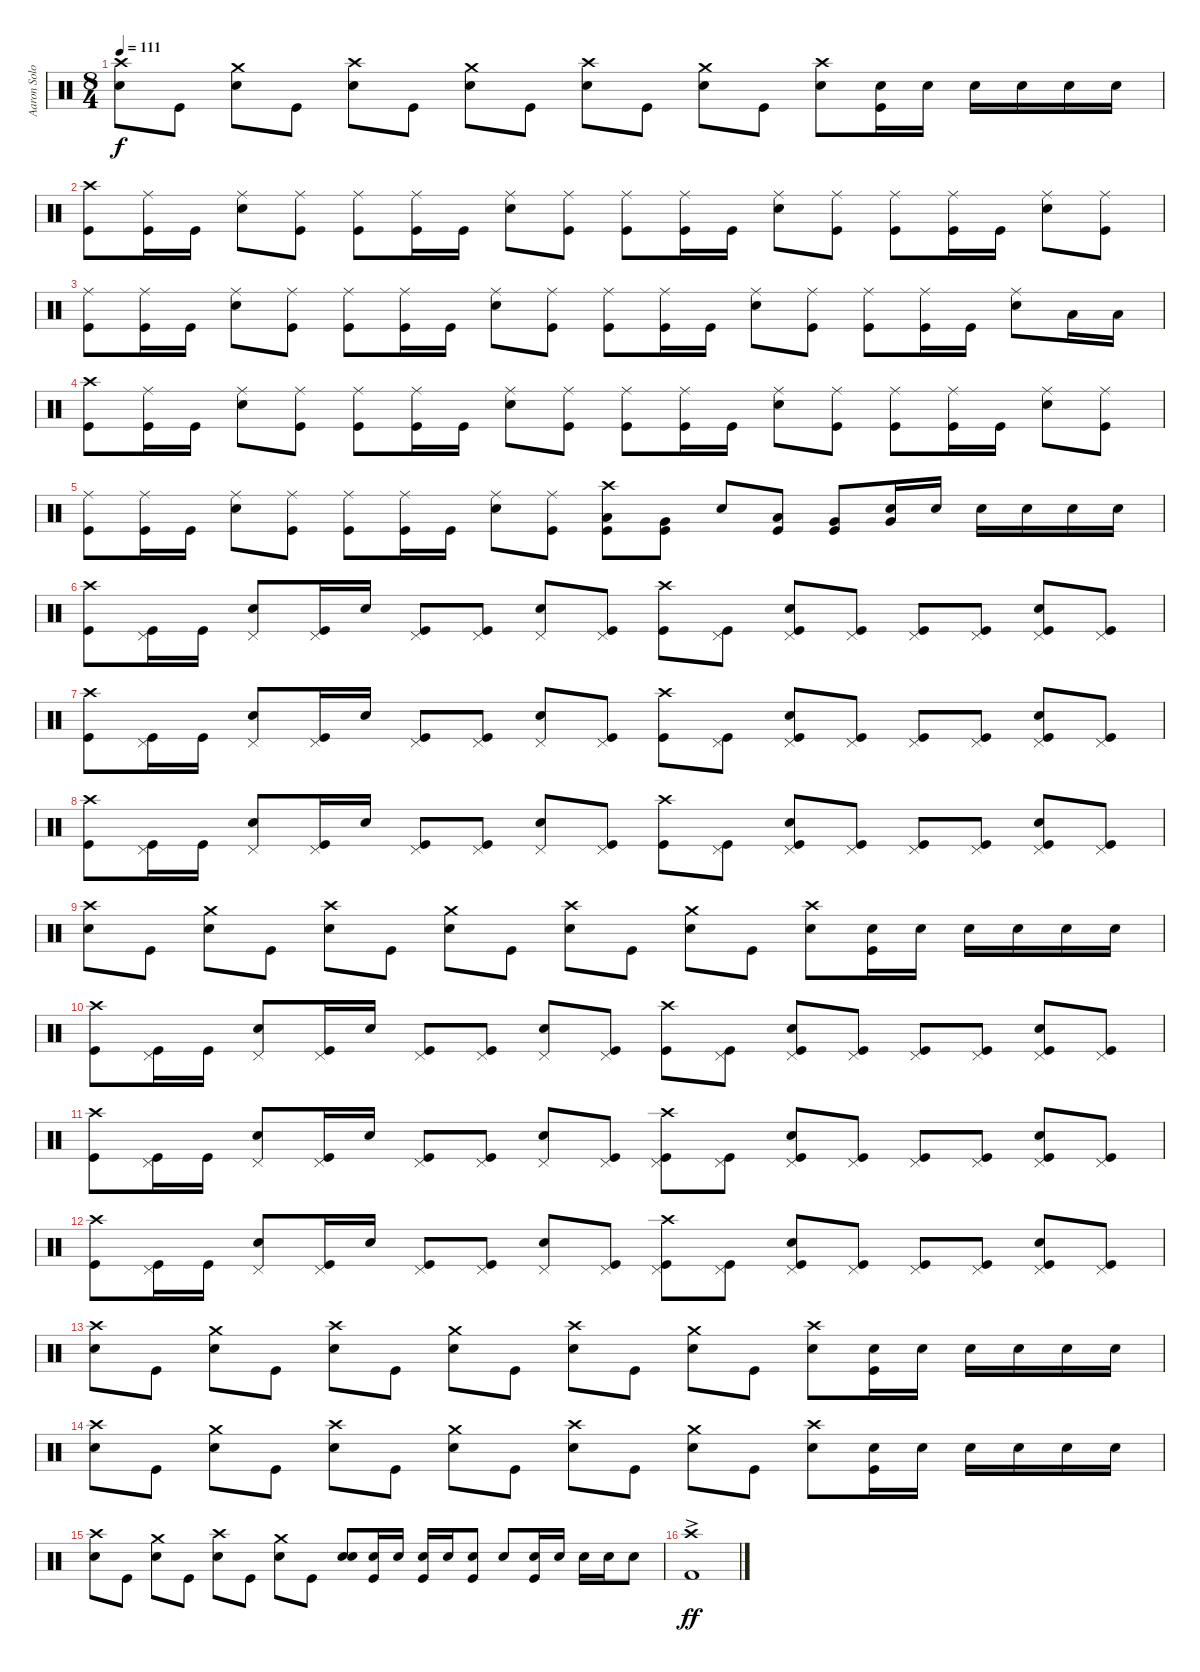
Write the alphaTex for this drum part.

\track ("Aaron Solowoniuk(Drums)" "Aaron Solo") {instrument percussion}
\staff {score}
\articulation defaults
\ts (8 4)
\tempo 111
\clef neutral
\ks c
("Crash high (hit)" "Electric Snare (hit)").8{dy f} "Kick (hit)".8 ("Crash medium (hit)" "Electric Snare (hit)").8 "Kick (hit)".8 ("Crash high (hit)" "Electric Snare (hit)").8 "Kick (hit)".8 ("Crash medium (hit)" "Electric Snare (hit)").8 "Kick (hit)".8 ("Crash high (hit)" "Electric Snare (hit)").8 "Kick (hit)".8 ("Crash medium (hit)" "Electric Snare (hit)").8 "Kick (hit)".8 ("Crash high (hit)" "Electric Snare (hit)").8 ("Electric Snare (hit)" "Kick (hit)").16 "Electric Snare (hit)".16 "Electric Snare (hit)".16 "Electric Snare (hit)".16 "Electric Snare (hit)".16 "Electric Snare (hit)".16 |
("Crash high (hit)" "Kick (hit)").8 ("Ride (middle)" "Kick (hit)").16 "Kick (hit)".16 ("Ride (middle)" "Electric Snare (hit)").8 ("Ride (middle)" "Kick (hit)").8 ("Ride (middle)" "Kick (hit)").8 ("Ride (middle)" "Kick (hit)").16 "Kick (hit)".16 ("Ride (middle)" "Electric Snare (hit)").8 ("Ride (middle)" "Kick (hit)").8 ("Ride (middle)" "Kick (hit)").8 ("Ride (middle)" "Kick (hit)").16 "Kick (hit)".16 ("Ride (middle)" "Electric Snare (hit)").8 ("Ride (middle)" "Kick (hit)").8 ("Ride (middle)" "Kick (hit)").8 ("Ride (middle)" "Kick (hit)").16 "Kick (hit)".16 ("Ride (middle)" "Electric Snare (hit)").8 ("Ride (middle)" "Kick (hit)").8 |
("Ride (middle)" "Kick (hit)").8 ("Ride (middle)" "Kick (hit)").16 "Kick (hit)".16 ("Ride (middle)" "Electric Snare (hit)").8 ("Ride (middle)" "Kick (hit)").8 ("Ride (middle)" "Kick (hit)").8 ("Ride (middle)" "Kick (hit)").16 "Kick (hit)".16 ("Ride (middle)" "Electric Snare (hit)").8 ("Ride (middle)" "Kick (hit)").8 ("Ride (middle)" "Kick (hit)").8 ("Ride (middle)" "Kick (hit)").16 "Kick (hit)".16 ("Ride (middle)" "Electric Snare (hit)").8 ("Ride (middle)" "Kick (hit)").8 ("Ride (middle)" "Kick (hit)").8 ("Ride (middle)" "Kick (hit)").16 "Kick (hit)".16 ("Ride (middle)" "Electric Snare (hit)").8 "Low Floor Tom (hit)".16 "Low Floor Tom (hit)".16 |
("Crash high (hit)" "Kick (hit)").8 ("Ride (middle)" "Kick (hit)").16 "Kick (hit)".16 ("Ride (middle)" "Electric Snare (hit)").8 ("Ride (middle)" "Kick (hit)").8 ("Ride (middle)" "Kick (hit)").8 ("Ride (middle)" "Kick (hit)").16 "Kick (hit)".16 ("Ride (middle)" "Electric Snare (hit)").8 ("Ride (middle)" "Kick (hit)").8 ("Ride (middle)" "Kick (hit)").8 ("Ride (middle)" "Kick (hit)").16 "Kick (hit)".16 ("Ride (middle)" "Electric Snare (hit)").8 ("Ride (middle)" "Kick (hit)").8 ("Ride (middle)" "Kick (hit)").8 ("Ride (middle)" "Kick (hit)").16 "Kick (hit)".16 ("Ride (middle)" "Electric Snare (hit)").8 ("Ride (middle)" "Kick (hit)").8 |
("Ride (middle)" "Kick (hit)").8 ("Ride (middle)" "Kick (hit)").16 "Kick (hit)".16 ("Ride (middle)" "Electric Snare (hit)").8 ("Ride (middle)" "Kick (hit)").8 ("Ride (middle)" "Kick (hit)").8 ("Ride (middle)" "Kick (hit)").16 "Kick (hit)".16 ("Ride (middle)" "Electric Snare (hit)").8 ("Ride (middle)" "Kick (hit)").8 ("Crash high (hit)" "Low Floor Tom (hit)" "Kick (hit)").8 ("Very Low Tom (hit)" "Kick (hit)").8 "Electric Snare (hit)".8 ("Low Floor Tom (hit)" "Kick (hit)").8 ("Kick (hit)" "Very Low Tom (hit)").8 ("Very Low Tom (hit)" "Electric Snare (hit)").16 "Electric Snare (hit)".16 "Electric Snare (hit)".16 "Electric Snare (hit)".16 "Electric Snare (hit)".16 "Electric Snare (hit)".16 |
("Crash high (hit)" "Kick (hit)").8 ("Pedal Hi-Hat (hit)" "Kick (hit)").16 "Kick (hit)".16 ("Electric Snare (hit)" "Pedal Hi-Hat (hit)").8 ("Pedal Hi-Hat (hit)" "Kick (hit)").16 "Electric Snare (hit)".16 ("Pedal Hi-Hat (hit)" "Kick (hit)").8 ("Pedal Hi-Hat (hit)" "Kick (hit)").8 ("Pedal Hi-Hat (hit)" "Electric Snare (hit)").8 ("Pedal Hi-Hat (hit)" "Kick (hit)").8 ("Kick (hit)" "Crash high (hit)").8 ("Pedal Hi-Hat (hit)" "Kick (hit)").8 ("Pedal Hi-Hat (hit)" "Electric Snare (hit)" "Kick (hit)").8 ("Pedal Hi-Hat (hit)" "Kick (hit)").8 ("Pedal Hi-Hat (hit)" "Kick (hit)").8 ("Pedal Hi-Hat (hit)" "Kick (hit)").8 ("Pedal Hi-Hat (hit)" "Electric Snare (hit)" "Kick (hit)").8 ("Pedal Hi-Hat (hit)" "Kick (hit)").8 |
("Crash high (hit)" "Kick (hit)").8 ("Pedal Hi-Hat (hit)" "Kick (hit)").16 "Kick (hit)".16 ("Electric Snare (hit)" "Pedal Hi-Hat (hit)").8 ("Pedal Hi-Hat (hit)" "Kick (hit)").16 "Electric Snare (hit)".16 ("Pedal Hi-Hat (hit)" "Kick (hit)").8 ("Pedal Hi-Hat (hit)" "Kick (hit)").8 ("Pedal Hi-Hat (hit)" "Electric Snare (hit)").8 ("Pedal Hi-Hat (hit)" "Kick (hit)").8 ("Kick (hit)" "Crash high (hit)").8 ("Pedal Hi-Hat (hit)" "Kick (hit)").8 ("Pedal Hi-Hat (hit)" "Electric Snare (hit)" "Kick (hit)").8 ("Pedal Hi-Hat (hit)" "Kick (hit)").8 ("Pedal Hi-Hat (hit)" "Kick (hit)").8 ("Pedal Hi-Hat (hit)" "Kick (hit)").8 ("Pedal Hi-Hat (hit)" "Electric Snare (hit)" "Kick (hit)").8 ("Pedal Hi-Hat (hit)" "Kick (hit)").8 |
("Crash high (hit)" "Kick (hit)").8 ("Pedal Hi-Hat (hit)" "Kick (hit)").16 "Kick (hit)".16 ("Electric Snare (hit)" "Pedal Hi-Hat (hit)").8 ("Pedal Hi-Hat (hit)" "Kick (hit)").16 "Electric Snare (hit)".16 ("Pedal Hi-Hat (hit)" "Kick (hit)").8 ("Pedal Hi-Hat (hit)" "Kick (hit)").8 ("Pedal Hi-Hat (hit)" "Electric Snare (hit)").8 ("Pedal Hi-Hat (hit)" "Kick (hit)").8 ("Kick (hit)" "Crash high (hit)").8 ("Pedal Hi-Hat (hit)" "Kick (hit)").8 ("Pedal Hi-Hat (hit)" "Electric Snare (hit)" "Kick (hit)").8 ("Pedal Hi-Hat (hit)" "Kick (hit)").8 ("Pedal Hi-Hat (hit)" "Kick (hit)").8 ("Pedal Hi-Hat (hit)" "Kick (hit)").8 ("Pedal Hi-Hat (hit)" "Electric Snare (hit)" "Kick (hit)").8 ("Pedal Hi-Hat (hit)" "Kick (hit)").8 |
("Crash high (hit)" "Electric Snare (hit)").8 "Kick (hit)".8 ("Crash medium (hit)" "Electric Snare (hit)").8 "Kick (hit)".8 ("Crash high (hit)" "Electric Snare (hit)").8 "Kick (hit)".8 ("Crash medium (hit)" "Electric Snare (hit)").8 "Kick (hit)".8 ("Crash high (hit)" "Electric Snare (hit)").8 "Kick (hit)".8 ("Crash medium (hit)" "Electric Snare (hit)").8 "Kick (hit)".8 ("Crash high (hit)" "Electric Snare (hit)").8 ("Electric Snare (hit)" "Kick (hit)").16 "Electric Snare (hit)".16 "Electric Snare (hit)".16 "Electric Snare (hit)".16 "Electric Snare (hit)".16 "Electric Snare (hit)".16 |
("Crash high (hit)" "Kick (hit)").8 ("Pedal Hi-Hat (hit)" "Kick (hit)").16 "Kick (hit)".16 ("Electric Snare (hit)" "Pedal Hi-Hat (hit)").8 ("Pedal Hi-Hat (hit)" "Kick (hit)").16 "Electric Snare (hit)".16 ("Pedal Hi-Hat (hit)" "Kick (hit)").8 ("Pedal Hi-Hat (hit)" "Kick (hit)").8 ("Pedal Hi-Hat (hit)" "Electric Snare (hit)").8 ("Pedal Hi-Hat (hit)" "Kick (hit)").8 ("Kick (hit)" "Crash high (hit)").8 ("Pedal Hi-Hat (hit)" "Kick (hit)").8 ("Pedal Hi-Hat (hit)" "Electric Snare (hit)" "Kick (hit)").8 ("Pedal Hi-Hat (hit)" "Kick (hit)").8 ("Pedal Hi-Hat (hit)" "Kick (hit)").8 ("Pedal Hi-Hat (hit)" "Kick (hit)").8 ("Pedal Hi-Hat (hit)" "Electric Snare (hit)" "Kick (hit)").8 ("Pedal Hi-Hat (hit)" "Kick (hit)").8 |
("Crash high (hit)" "Kick (hit)").8 ("Pedal Hi-Hat (hit)" "Kick (hit)").16 "Kick (hit)".16 ("Electric Snare (hit)" "Pedal Hi-Hat (hit)").8 ("Pedal Hi-Hat (hit)" "Kick (hit)").16 "Electric Snare (hit)".16 ("Pedal Hi-Hat (hit)" "Kick (hit)").8 ("Pedal Hi-Hat (hit)" "Kick (hit)").8 ("Pedal Hi-Hat (hit)" "Electric Snare (hit)").8 ("Pedal Hi-Hat (hit)" "Kick (hit)").8 ("Pedal Hi-Hat (hit)" "Kick (hit)" "Crash high (hit)").8 ("Pedal Hi-Hat (hit)" "Kick (hit)").8 ("Pedal Hi-Hat (hit)" "Electric Snare (hit)" "Kick (hit)").8 ("Pedal Hi-Hat (hit)" "Kick (hit)").8 ("Pedal Hi-Hat (hit)" "Kick (hit)").8 ("Pedal Hi-Hat (hit)" "Kick (hit)").8 ("Pedal Hi-Hat (hit)" "Electric Snare (hit)" "Kick (hit)").8 ("Pedal Hi-Hat (hit)" "Kick (hit)").8 |
("Crash high (hit)" "Kick (hit)").8 ("Pedal Hi-Hat (hit)" "Kick (hit)").16 "Kick (hit)".16 ("Electric Snare (hit)" "Pedal Hi-Hat (hit)").8 ("Pedal Hi-Hat (hit)" "Kick (hit)").16 "Electric Snare (hit)".16 ("Pedal Hi-Hat (hit)" "Kick (hit)").8 ("Pedal Hi-Hat (hit)" "Kick (hit)").8 ("Pedal Hi-Hat (hit)" "Electric Snare (hit)").8 ("Pedal Hi-Hat (hit)" "Kick (hit)").8 ("Pedal Hi-Hat (hit)" "Kick (hit)" "Crash high (hit)").8 ("Pedal Hi-Hat (hit)" "Kick (hit)").8 ("Pedal Hi-Hat (hit)" "Electric Snare (hit)" "Kick (hit)").8 ("Pedal Hi-Hat (hit)" "Kick (hit)").8 ("Pedal Hi-Hat (hit)" "Kick (hit)").8 ("Pedal Hi-Hat (hit)" "Kick (hit)").8 ("Pedal Hi-Hat (hit)" "Electric Snare (hit)" "Kick (hit)").8 ("Pedal Hi-Hat (hit)" "Kick (hit)").8 |
("Crash high (hit)" "Electric Snare (hit)").8 "Kick (hit)".8 ("Crash medium (hit)" "Electric Snare (hit)").8 "Kick (hit)".8 ("Crash high (hit)" "Electric Snare (hit)").8 "Kick (hit)".8 ("Crash medium (hit)" "Electric Snare (hit)").8 "Kick (hit)".8 ("Crash high (hit)" "Electric Snare (hit)").8 "Kick (hit)".8 ("Crash medium (hit)" "Electric Snare (hit)").8 "Kick (hit)".8 ("Crash high (hit)" "Electric Snare (hit)").8 ("Electric Snare (hit)" "Kick (hit)").16 "Electric Snare (hit)".16 "Electric Snare (hit)".16 "Electric Snare (hit)".16 "Electric Snare (hit)".16 "Electric Snare (hit)".16 |
("Crash high (hit)" "Electric Snare (hit)").8 "Kick (hit)".8 ("Crash medium (hit)" "Electric Snare (hit)").8 "Kick (hit)".8 ("Crash high (hit)" "Electric Snare (hit)").8 "Kick (hit)".8 ("Crash medium (hit)" "Electric Snare (hit)").8 "Kick (hit)".8 ("Crash high (hit)" "Electric Snare (hit)").8 "Kick (hit)".8 ("Crash medium (hit)" "Electric Snare (hit)").8 "Kick (hit)".8 ("Crash high (hit)" "Electric Snare (hit)").8 ("Electric Snare (hit)" "Kick (hit)").16 "Electric Snare (hit)".16 "Electric Snare (hit)".16 "Electric Snare (hit)".16 "Electric Snare (hit)".16 "Electric Snare (hit)".16 |
("Crash high (hit)" "Electric Snare (hit)").8 "Kick (hit)".8 ("Crash medium (hit)" "Electric Snare (hit)").8 "Kick (hit)".8 ("Crash high (hit)" "Electric Snare (hit)").8 "Kick (hit)".8 ("Crash medium (hit)" "Electric Snare (hit)").8 "Kick (hit)".8 ("Electric Snare (hit)" "Electric Snare (hit)").8 ("Kick (hit)" "Electric Snare (hit)").16 "Electric Snare (hit)".16 ("Kick (hit)" "Electric Snare (hit)").16 "Electric Snare (hit)".16 ("Kick (hit)" "Electric Snare (hit)").8 "Electric Snare (hit)".8 ("Electric Snare (hit)" "Kick (hit)").16 "Electric Snare (hit)".16 "Electric Snare (hit)".16 "Electric Snare (hit)".16 "Electric Snare (hit)".8 |
("Crash high (hit)"{ac} "Kick (hit) 2"{ac}).1{dy ff}
